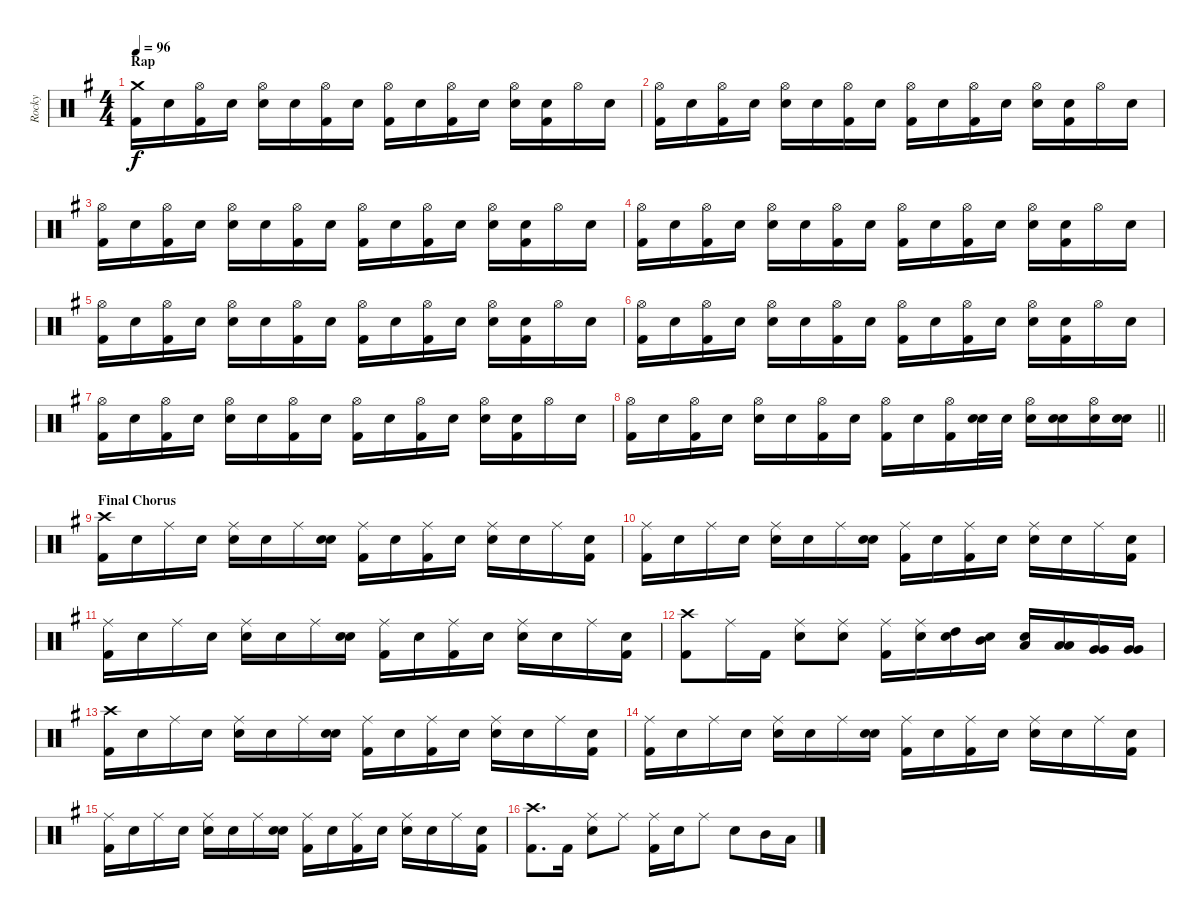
\track ("Rocky" "Rocky") {instrument percussion}
\staff {score}
\articulation defaults
\ts (4 4)
\section ("" "Rap")
\tempo 96
\clef neutral
\ks g
("Crash medium (hit)" "Kick (hit) 2").16{dy f} "Snare (hit)".16 ("Hi-Hat (open)" "Kick (hit) 2").16 "Snare (hit)".16 ("Hi-Hat (open)" "Snare (hit) 2").16 "Snare (hit)".16 ("Hi-Hat (open)" "Kick (hit) 2").16 "Snare (hit)".16 ("Hi-Hat (open)" "Kick (hit) 2").16 "Snare (hit)".16 ("Hi-Hat (open)" "Kick (hit) 2").16 "Snare (hit)".16 ("Hi-Hat (open)" "Snare (hit) 2").16 ("Snare (hit)" "Kick (hit) 2").16 "Hi-Hat (open)".16 "Snare (hit)".16 |
("Hi-Hat (open)" "Kick (hit) 2").16 "Snare (hit)".16 ("Hi-Hat (open)" "Kick (hit) 2").16 "Snare (hit)".16 ("Hi-Hat (open)" "Snare (hit) 2").16 "Snare (hit)".16 ("Hi-Hat (open)" "Kick (hit) 2").16 "Snare (hit)".16 ("Hi-Hat (open)" "Kick (hit) 2").16 "Snare (hit)".16 ("Hi-Hat (open)" "Kick (hit) 2").16 "Snare (hit)".16 ("Hi-Hat (open)" "Snare (hit) 2").16 ("Snare (hit)" "Kick (hit) 2").16 "Hi-Hat (open)".16 "Snare (hit)".16 |
("Hi-Hat (open)" "Kick (hit) 2").16 "Snare (hit)".16 ("Hi-Hat (open)" "Kick (hit) 2").16 "Snare (hit)".16 ("Hi-Hat (open)" "Snare (hit) 2").16 "Snare (hit)".16 ("Hi-Hat (open)" "Kick (hit) 2").16 "Snare (hit)".16 ("Hi-Hat (open)" "Kick (hit) 2").16 "Snare (hit)".16 ("Hi-Hat (open)" "Kick (hit) 2").16 "Snare (hit)".16 ("Hi-Hat (open)" "Snare (hit) 2").16 ("Snare (hit)" "Kick (hit) 2").16 "Hi-Hat (open)".16 "Snare (hit)".16 |
("Hi-Hat (open)" "Kick (hit) 2").16 "Snare (hit)".16 ("Hi-Hat (open)" "Kick (hit) 2").16 "Snare (hit)".16 ("Hi-Hat (open)" "Snare (hit) 2").16 "Snare (hit)".16 ("Hi-Hat (open)" "Kick (hit) 2").16 "Snare (hit)".16 ("Hi-Hat (open)" "Kick (hit) 2").16 "Snare (hit)".16 ("Hi-Hat (open)" "Kick (hit) 2").16 "Snare (hit)".16 ("Hi-Hat (open)" "Snare (hit) 2").16 ("Snare (hit)" "Kick (hit) 2").16 "Hi-Hat (open)".16 "Snare (hit)".16 |
("Hi-Hat (open)" "Kick (hit) 2").16 "Snare (hit)".16 ("Hi-Hat (open)" "Kick (hit) 2").16 "Snare (hit)".16 ("Hi-Hat (open)" "Snare (hit) 2").16 "Snare (hit)".16 ("Hi-Hat (open)" "Kick (hit) 2").16 "Snare (hit)".16 ("Hi-Hat (open)" "Kick (hit) 2").16 "Snare (hit)".16 ("Hi-Hat (open)" "Kick (hit) 2").16 "Snare (hit)".16 ("Hi-Hat (open)" "Snare (hit) 2").16 ("Snare (hit)" "Kick (hit) 2").16 "Hi-Hat (open)".16 "Snare (hit)".16 |
("Hi-Hat (open)" "Kick (hit) 2").16 "Snare (hit)".16 ("Hi-Hat (open)" "Kick (hit) 2").16 "Snare (hit)".16 ("Hi-Hat (open)" "Snare (hit) 2").16 "Snare (hit)".16 ("Hi-Hat (open)" "Kick (hit) 2").16 "Snare (hit)".16 ("Hi-Hat (open)" "Kick (hit) 2").16 "Snare (hit)".16 ("Hi-Hat (open)" "Kick (hit) 2").16 "Snare (hit)".16 ("Hi-Hat (open)" "Snare (hit) 2").16 ("Snare (hit)" "Kick (hit) 2").16 "Hi-Hat (open)".16 "Snare (hit)".16 |
("Hi-Hat (open)" "Kick (hit) 2").16 "Snare (hit)".16 ("Hi-Hat (open)" "Kick (hit) 2").16 "Snare (hit)".16 ("Hi-Hat (open)" "Snare (hit) 2").16 "Snare (hit)".16 ("Hi-Hat (open)" "Kick (hit) 2").16 "Snare (hit)".16 ("Hi-Hat (open)" "Kick (hit) 2").16 "Snare (hit)".16 ("Hi-Hat (open)" "Kick (hit) 2").16 "Snare (hit)".16 ("Hi-Hat (open)" "Snare (hit) 2").16 ("Snare (hit)" "Kick (hit) 2").16 "Hi-Hat (open)".16 "Snare (hit)".16 |
\barLineRight lightlight
("Hi-Hat (open)" "Kick (hit) 2").16 "Snare (hit)".16 ("Hi-Hat (open)" "Kick (hit) 2").16 "Snare (hit)".16 ("Hi-Hat (open)" "Snare (hit) 2").16 "Snare (hit)".16 ("Hi-Hat (open)" "Kick (hit) 2").16 "Snare (hit)".16 ("Hi-Hat (open)" "Kick (hit) 2").16 "Snare (hit)".16 ("Hi-Hat (open)" "Kick (hit) 2").16 ("Snare (hit)" "Snare (hit) 2").32 "Snare (hit) 2".32 ("Hi-Hat (open)" "Snare (hit) 2").16 ("Snare (hit)" "Snare (hit) 2").16 ("Hi-Hat (open)" "Snare (hit) 2").16 ("Snare (hit)" "Snare (hit) 2").16 |
\section ("" "Final Chorus")
("Crash high (hit)" "Kick (hit) 2").16 "Snare (hit)".16 "Ride (middle)".16 "Snare (hit)".16 ("Ride (middle)" "Snare (hit) 2").16 "Snare (hit)".16 "Ride (middle)".16 ("Snare (hit)" "Snare (hit) 2").16 ("Ride (middle)" "Kick (hit) 2").16 "Snare (hit)".16 ("Ride (middle)" "Kick (hit) 2").16 "Snare (hit)".16 ("Ride (middle)" "Snare (hit) 2").16 "Snare (hit)".16 "Ride (middle)".16 ("Snare (hit)" "Kick (hit) 2").16 |
("Ride (middle)" "Kick (hit) 2").16 "Snare (hit)".16 "Ride (middle)".16 "Snare (hit)".16 ("Ride (middle)" "Snare (hit) 2").16 "Snare (hit)".16 "Ride (middle)".16 ("Snare (hit)" "Snare (hit) 2").16 ("Ride (middle)" "Kick (hit) 2").16 "Snare (hit)".16 ("Ride (middle)" "Kick (hit) 2").16 "Snare (hit)".16 ("Ride (middle)" "Snare (hit) 2").16 "Snare (hit)".16 "Ride (middle)".16 ("Snare (hit)" "Kick (hit) 2").16 |
("Ride (middle)" "Kick (hit) 2").16 "Snare (hit)".16 "Ride (middle)".16 "Snare (hit)".16 ("Ride (middle)" "Snare (hit) 2").16 "Snare (hit)".16 "Ride (middle)".16 ("Snare (hit)" "Snare (hit) 2").16 ("Ride (middle)" "Kick (hit) 2").16 "Snare (hit)".16 ("Ride (middle)" "Kick (hit) 2").16 "Snare (hit)".16 ("Ride (middle)" "Snare (hit) 2").16 "Snare (hit)".16 "Ride (middle)".16 ("Snare (hit)" "Kick (hit) 2").16 |
("Crash high (hit)" "Kick (hit) 2").8 "Ride (middle)".16 "Kick (hit) 2".16 ("Ride (middle)" "Snare (hit) 2").8 ("Ride (middle)" "Snare (hit) 2").8 ("Ride (middle)" "Kick (hit) 2").16 ("Ride (middle)" "Snare (hit) 2").16 ("High Tom (hit)" "Snare (hit) 2").16 ("Mid Tom (hit)" "Snare (hit) 2").16 ("Low Tom (hit)" "Snare (hit) 2").16 ("Low Tom (hit)" "Low Tom (hit)").16 ("Very Low Tom (hit)" "Very Low Tom (hit)").16 ("Very Low Tom (hit)" "Very Low Tom (hit)").16 |
("Crash high (hit)" "Kick (hit) 2").16 "Snare (hit)".16 "Ride (middle)".16 "Snare (hit)".16 ("Ride (middle)" "Snare (hit) 2").16 "Snare (hit)".16 "Ride (middle)".16 ("Snare (hit)" "Snare (hit) 2").16 ("Ride (middle)" "Kick (hit) 2").16 "Snare (hit)".16 ("Ride (middle)" "Kick (hit) 2").16 "Snare (hit)".16 ("Ride (middle)" "Snare (hit) 2").16 "Snare (hit)".16 "Ride (middle)".16 ("Snare (hit)" "Kick (hit) 2").16 |
("Ride (middle)" "Kick (hit) 2").16 "Snare (hit)".16 "Ride (middle)".16 "Snare (hit)".16 ("Ride (middle)" "Snare (hit) 2").16 "Snare (hit)".16 "Ride (middle)".16 ("Snare (hit)" "Snare (hit) 2").16 ("Ride (middle)" "Kick (hit) 2").16 "Snare (hit)".16 ("Ride (middle)" "Kick (hit) 2").16 "Snare (hit)".16 ("Ride (middle)" "Snare (hit) 2").16 "Snare (hit)".16 "Ride (middle)".16 ("Snare (hit)" "Kick (hit) 2").16 |
("Ride (middle)" "Kick (hit) 2").16 "Snare (hit)".16 "Ride (middle)".16 "Snare (hit)".16 ("Ride (middle)" "Snare (hit) 2").16 "Snare (hit)".16 "Ride (middle)".16 ("Snare (hit)" "Snare (hit) 2").16 ("Ride (middle)" "Kick (hit) 2").16 "Snare (hit)".16 ("Ride (middle)" "Kick (hit) 2").16 "Snare (hit)".16 ("Ride (middle)" "Snare (hit) 2").16 "Snare (hit)".16 "Ride (middle)".16 ("Snare (hit)" "Kick (hit) 2").16 |
("Crash high (hit)" "Kick (hit) 2").8{d} "Kick (hit) 2".16 ("Ride (middle)" "Snare (hit) 2").8 "Ride (middle)".8 ("Ride (middle)" "Kick (hit) 2").16 "Snare (hit) 2".16 "Ride (middle)".8 "Snare (hit) 2".8 "Mid Tom (hit)".16 "Low Tom (hit)".16
